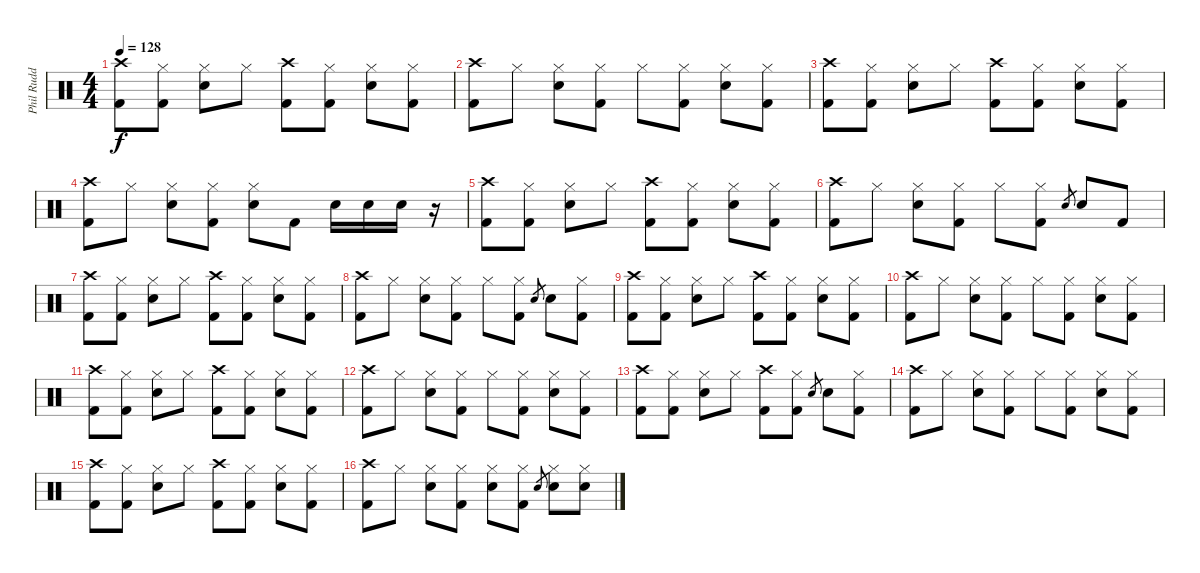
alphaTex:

\track ("Phil Rudd" "Phil Rudd") {instrument percussion}
\staff {score}
\articulation defaults
\ts (4 4)
\tempo 128
\clef neutral
\ks c
("Crash high (hit)" "Kick (hit) 2").8{dy f} ("Hi-Hat (closed)" "Kick (hit) 2").8 ("Hi-Hat (closed)" "Snare (hit) 2").8 "Hi-Hat (closed)".8 ("Crash high (hit)" "Kick (hit) 2").8 ("Hi-Hat (closed)" "Kick (hit) 2").8 ("Hi-Hat (closed)" "Snare (hit) 2").8 ("Hi-Hat (closed)" "Kick (hit) 2").8 |
("Crash high (hit)" "Kick (hit) 2").8 "Hi-Hat (closed)".8 ("Hi-Hat (closed)" "Snare (hit) 2").8 ("Hi-Hat (closed)" "Kick (hit) 2").8 "Hi-Hat (closed)".8 ("Hi-Hat (closed)" "Kick (hit) 2").8 ("Hi-Hat (closed)" "Snare (hit) 2").8 ("Hi-Hat (closed)" "Kick (hit) 2").8 |
("Crash high (hit)" "Kick (hit) 2").8 ("Hi-Hat (closed)" "Kick (hit) 2").8 ("Hi-Hat (closed)" "Snare (hit) 2").8 "Hi-Hat (closed)".8 ("Crash high (hit)" "Kick (hit) 2").8 ("Hi-Hat (closed)" "Kick (hit) 2").8 ("Hi-Hat (closed)" "Snare (hit) 2").8 ("Hi-Hat (closed)" "Kick (hit) 2").8 |
("Crash high (hit)" "Kick (hit) 2").8 "Hi-Hat (closed)".8 ("Hi-Hat (closed)" "Snare (hit) 2").8 ("Hi-Hat (closed)" "Kick (hit) 2").8 ("Hi-Hat (closed)" "Snare (hit) 2").8 "Kick (hit) 2".8 "Snare (hit) 2".16 "Snare (hit) 2".16 "Snare (hit) 2".16 r.16 |
("Crash high (hit)" "Kick (hit) 2").8 ("Hi-Hat (closed)" "Kick (hit) 2").8 ("Hi-Hat (closed)" "Snare (hit) 2").8 "Hi-Hat (closed)".8 ("Crash high (hit)" "Kick (hit) 2").8 ("Hi-Hat (closed)" "Kick (hit) 2").8 ("Hi-Hat (closed)" "Snare (hit) 2").8 ("Hi-Hat (closed)" "Kick (hit) 2").8 |
("Crash high (hit)" "Kick (hit) 2").8 "Hi-Hat (closed)".8 ("Hi-Hat (closed)" "Snare (hit) 2").8 ("Hi-Hat (closed)" "Kick (hit) 2").8 "Hi-Hat (closed)".8 ("Hi-Hat (closed)" "Kick (hit) 2").8 "Snare (hit) 2".8{gr} "Snare (hit) 2".8 "Kick (hit) 2".8 |
("Crash high (hit)" "Kick (hit) 2").8 ("Hi-Hat (closed)" "Kick (hit) 2").8 ("Hi-Hat (closed)" "Snare (hit) 2").8 "Hi-Hat (closed)".8 ("Crash high (hit)" "Kick (hit) 2").8 ("Hi-Hat (closed)" "Kick (hit) 2").8 ("Hi-Hat (closed)" "Snare (hit) 2").8 ("Hi-Hat (closed)" "Kick (hit) 2").8 |
("Crash high (hit)" "Kick (hit) 2").8 "Hi-Hat (closed)".8 ("Hi-Hat (closed)" "Snare (hit) 2").8 ("Hi-Hat (closed)" "Kick (hit) 2").8 "Hi-Hat (closed)".8 ("Hi-Hat (closed)" "Kick (hit) 2").8 "Snare (hit) 2".8{gr} "Snare (hit) 2".8 ("Hi-Hat (closed)" "Kick (hit) 2").8 |
("Crash high (hit)" "Kick (hit) 2").8 ("Hi-Hat (closed)" "Kick (hit) 2").8 ("Hi-Hat (closed)" "Snare (hit) 2").8 "Hi-Hat (closed)".8 ("Crash high (hit)" "Kick (hit) 2").8 ("Hi-Hat (closed)" "Kick (hit) 2").8 ("Hi-Hat (closed)" "Snare (hit) 2").8 ("Hi-Hat (closed)" "Kick (hit) 2").8 |
("Crash high (hit)" "Kick (hit) 2").8 "Hi-Hat (closed)".8 ("Hi-Hat (closed)" "Snare (hit) 2").8 ("Hi-Hat (closed)" "Kick (hit) 2").8 "Hi-Hat (closed)".8 ("Hi-Hat (closed)" "Kick (hit) 2").8 ("Hi-Hat (closed)" "Snare (hit) 2").8 ("Hi-Hat (closed)" "Kick (hit) 2").8 |
("Crash high (hit)" "Kick (hit) 2").8 ("Hi-Hat (closed)" "Kick (hit) 2").8 ("Hi-Hat (closed)" "Snare (hit) 2").8 "Hi-Hat (closed)".8 ("Crash high (hit)" "Kick (hit) 2").8 ("Hi-Hat (closed)" "Kick (hit) 2").8 ("Hi-Hat (closed)" "Snare (hit) 2").8 ("Hi-Hat (closed)" "Kick (hit) 2").8 |
("Crash high (hit)" "Kick (hit) 2").8 "Hi-Hat (closed)".8 ("Hi-Hat (closed)" "Snare (hit) 2").8 ("Hi-Hat (closed)" "Kick (hit) 2").8 "Hi-Hat (closed)".8 ("Hi-Hat (closed)" "Kick (hit) 2").8 ("Hi-Hat (closed)" "Snare (hit) 2").8 ("Hi-Hat (closed)" "Kick (hit) 2").8 |
("Crash high (hit)" "Kick (hit) 2").8 ("Hi-Hat (closed)" "Kick (hit) 2").8 ("Hi-Hat (closed)" "Snare (hit) 2").8 "Hi-Hat (closed)".8 ("Crash high (hit)" "Kick (hit) 2").8 ("Hi-Hat (closed)" "Kick (hit) 2").8 "Snare (hit) 2".8{gr} "Snare (hit) 2".8 ("Hi-Hat (closed)" "Kick (hit) 2").8 |
("Crash high (hit)" "Kick (hit) 2").8 "Hi-Hat (closed)".8 ("Hi-Hat (closed)" "Snare (hit) 2").8 ("Hi-Hat (closed)" "Kick (hit) 2").8 "Hi-Hat (closed)".8 ("Hi-Hat (closed)" "Kick (hit) 2").8 ("Hi-Hat (closed)" "Snare (hit) 2").8 ("Hi-Hat (closed)" "Kick (hit) 2").8 |
("Crash high (hit)" "Kick (hit) 2").8 ("Hi-Hat (closed)" "Kick (hit) 2").8 ("Hi-Hat (closed)" "Snare (hit) 2").8 "Hi-Hat (closed)".8 ("Crash high (hit)" "Kick (hit) 2").8 ("Hi-Hat (closed)" "Kick (hit) 2").8 ("Hi-Hat (closed)" "Snare (hit) 2").8 ("Hi-Hat (closed)" "Kick (hit) 2").8 |
("Crash high (hit)" "Kick (hit) 2").8 "Hi-Hat (closed)".8 ("Hi-Hat (closed)" "Snare (hit) 2").8 ("Hi-Hat (closed)" "Kick (hit) 2").8 ("Hi-Hat (closed)" "Snare (hit) 2").8 ("Hi-Hat (closed)" "Kick (hit) 2").8 "Snare (hit) 2".8{gr} ("Hi-Hat (closed)" "Snare (hit) 2").8 ("Hi-Hat (closed)" "Snare (hit) 2").8
